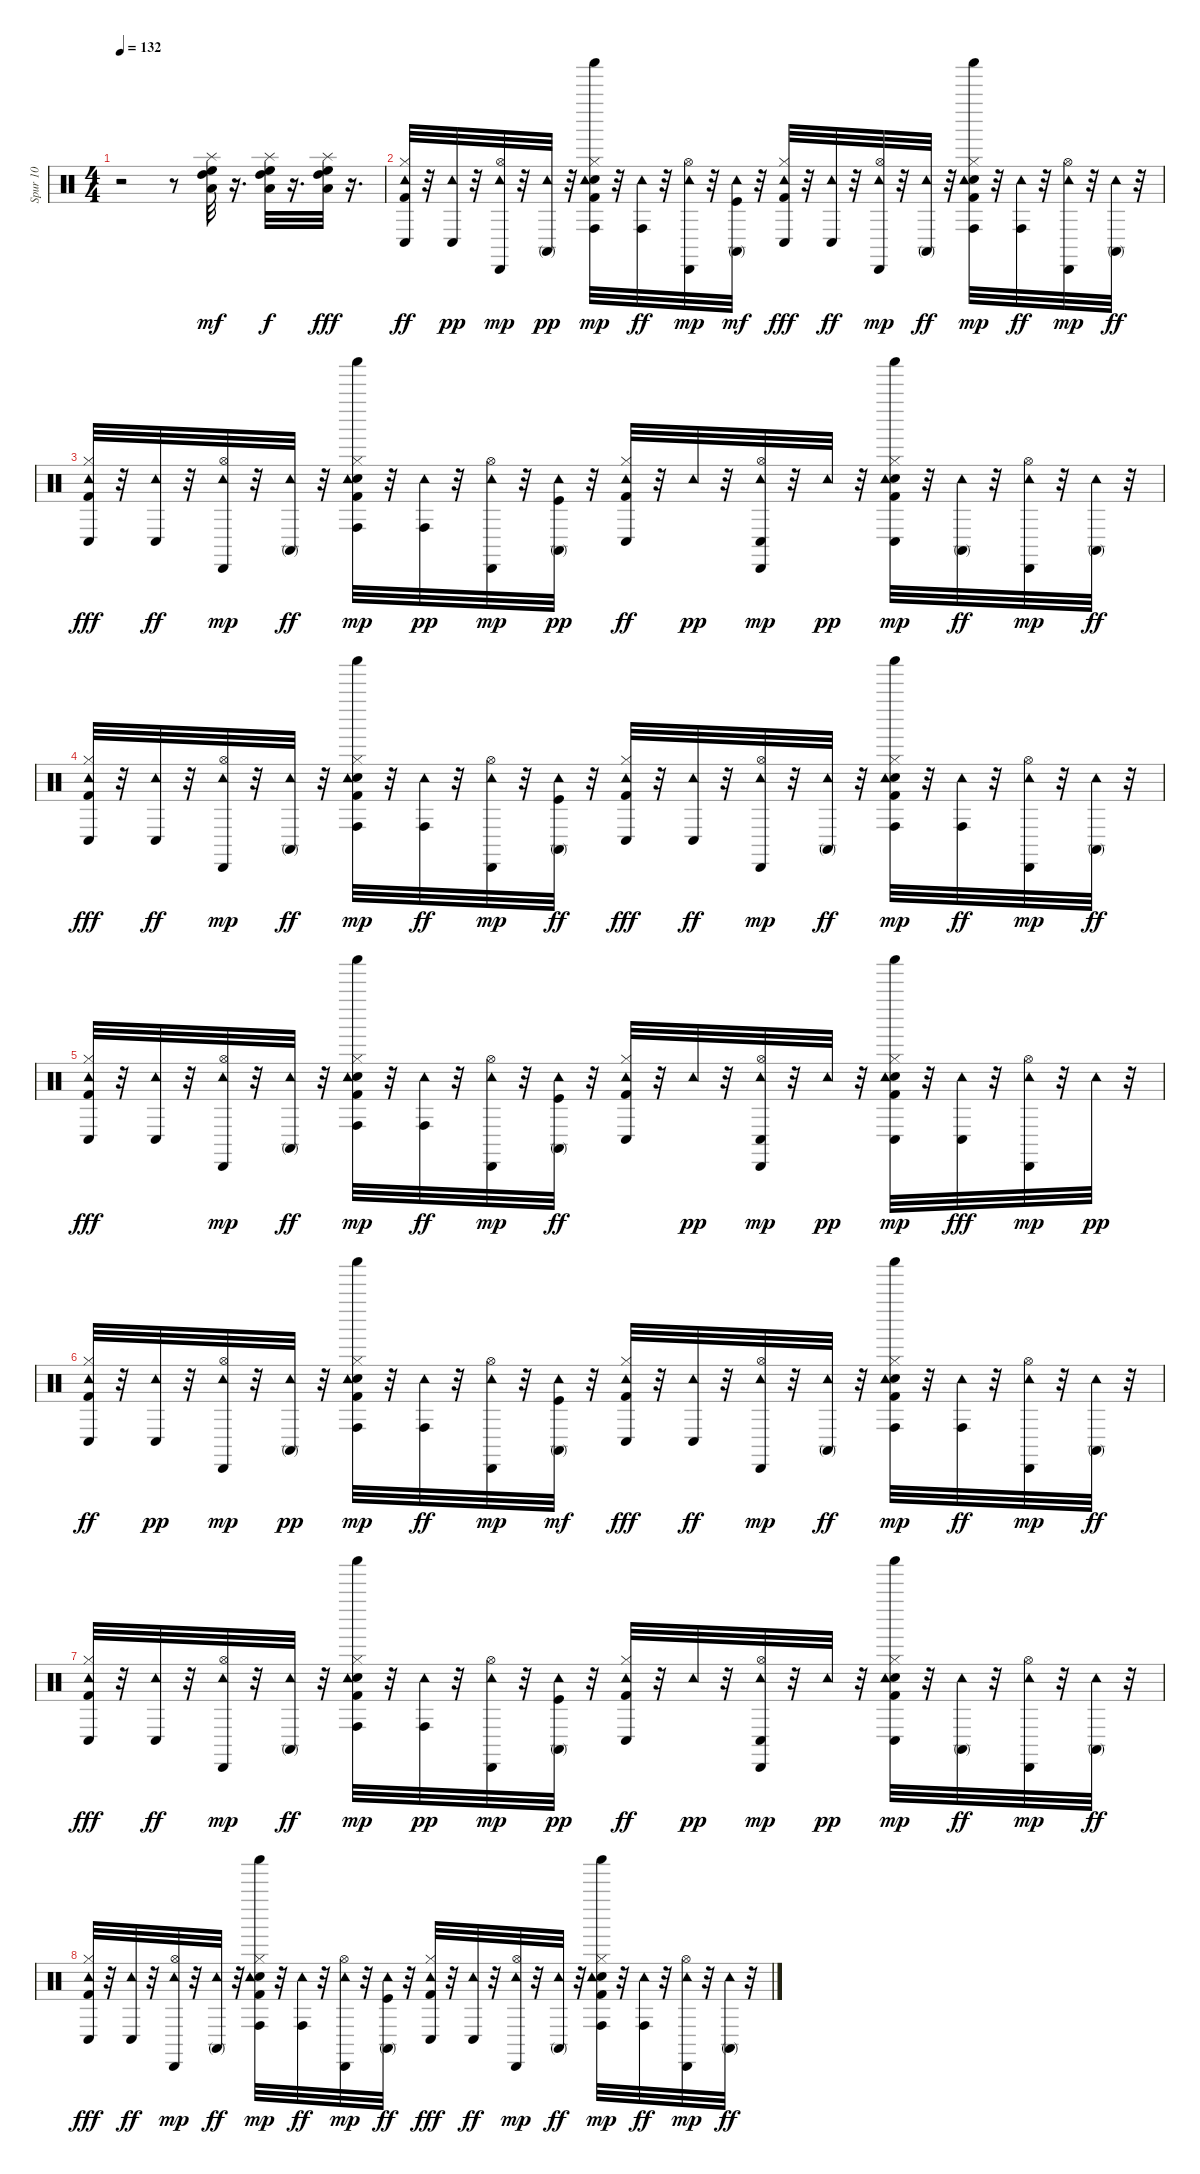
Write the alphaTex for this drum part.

\track ("Spur 10" "Spur 10") {instrument percussion}
\staff {score}
\articulation defaults
\ts (4 4)
\tempo 132
\clef neutral
\ks c
r.2{dy mf} r.8 ("Splash (hit)" "High Floor Tom (hit)" "High Tom (hit)" "Low Tom (hit)").32 r.16{d} ("High Tom (hit)" "High Floor Tom (hit)" "Splash (hit)" "Low Tom (hit)").32{dy f} r.16{d} ("Low Tom (hit)" "High Tom (hit)" "High Floor Tom (hit)" "Splash (hit)").32{dy fff} r.16{d} |
("Kick (hit) 2" "Hi-Hat (closed)" "Tambourine (hit)" "Conga low (hit)").32{dy ff} r.32 ("Tambourine (hit)" "Conga low (hit)").32{dy pp} r.32 ("Hi-Hat (open)" "Tambourine (hit)" "Cabasa (hit)").32{dy mp} r.32 ("Tambourine (hit)" "Conga high (mute)").32{dy pp} r.32 ("Snare (hit) 2" "Kick (hit) 2" "Hi-Hat (closed)" "Tambourine (hit)" "Conga high (hit)" "Shaker (hit)").32{dy mp} r.32 ("Tambourine (hit)" "Conga high (hit)").32{dy ff} r.32 ("Hi-Hat (open)" "Tambourine (hit)" "Cabasa (hit)").32{dy mp} r.32 ("Kick (hit)" "Tambourine (hit)" "Conga high (mute)").32{dy mf} r.32 ("Kick (hit) 2" "Hi-Hat (closed)" "Tambourine (hit)" "Conga low (hit)").32{dy fff} r.32 ("Tambourine (hit)" "Conga low (hit)").32{dy ff} r.32 ("Hi-Hat (open)" "Tambourine (hit)" "Cabasa (hit)").32{dy mp} r.32 ("Tambourine (hit)" "Conga high (mute)").32{dy ff} r.32 ("Snare (hit) 2" "Kick (hit) 2" "Hi-Hat (closed)" "Tambourine (hit)" "Conga high (hit)" "Shaker (hit)").32{dy mp} r.32 ("Tambourine (hit)" "Conga high (hit)").32{dy ff} r.32 ("Hi-Hat (open)" "Tambourine (hit)" "Cabasa (hit)").32{dy mp} r.32 ("Tambourine (hit)" "Conga high (mute)").32{dy ff} r.32 |
("Kick (hit) 2" "Hi-Hat (closed)" "Tambourine (hit)" "Conga low (hit)").32{dy fff} r.32 ("Tambourine (hit)" "Conga low (hit)").32{dy ff} r.32 ("Hi-Hat (open)" "Tambourine (hit)" "Cabasa (hit)").32{dy mp} r.32 ("Tambourine (hit)" "Conga high (mute)").32{dy ff} r.32 ("Snare (hit) 2" "Kick (hit) 2" "Hi-Hat (closed)" "Tambourine (hit)" "Conga high (hit)" "Shaker (hit)").32{dy mp} r.32 ("Tambourine (hit)" "Conga high (hit)").32{dy pp} r.32 ("Hi-Hat (open)" "Tambourine (hit)" "Cabasa (hit)").32{dy mp} r.32 ("Kick (hit)" "Tambourine (hit)" "Conga high (mute)").32{dy pp} r.32 ("Kick (hit) 2" "Hi-Hat (closed)" "Tambourine (hit)" "Conga low (hit)").32{dy ff} r.32 "Tambourine (hit)".32{dy pp} r.32 ("Hi-Hat (open)" "Tambourine (hit)" "Conga low (hit)" "Cabasa (hit)").32{dy mp} r.32 "Tambourine (hit)".32{dy pp} r.32 ("Snare (hit) 2" "Kick (hit) 2" "Hi-Hat (closed)" "Tambourine (hit)" "Conga low (hit)" "Shaker (hit)").32{dy mp} r.32 ("Tambourine (hit)" "Conga high (mute)").32{dy ff} r.32 ("Hi-Hat (open)" "Tambourine (hit)" "Cabasa (hit)").32{dy mp} r.32 ("Tambourine (hit)" "Conga high (mute)").32{dy ff} r.32 |
("Kick (hit) 2" "Hi-Hat (closed)" "Tambourine (hit)" "Conga low (hit)").32{dy fff} r.32 ("Tambourine (hit)" "Conga low (hit)").32{dy ff} r.32 ("Hi-Hat (open)" "Tambourine (hit)" "Cabasa (hit)").32{dy mp} r.32 ("Tambourine (hit)" "Conga high (mute)").32{dy ff} r.32 ("Snare (hit) 2" "Kick (hit) 2" "Hi-Hat (closed)" "Tambourine (hit)" "Conga high (hit)" "Shaker (hit)").32{dy mp} r.32 ("Tambourine (hit)" "Conga high (hit)").32{dy ff} r.32 ("Hi-Hat (open)" "Tambourine (hit)" "Cabasa (hit)").32{dy mp} r.32 ("Kick (hit)" "Tambourine (hit)" "Conga high (mute)").32{dy ff} r.32 ("Kick (hit) 2" "Hi-Hat (closed)" "Tambourine (hit)" "Conga low (hit)").32{dy fff} r.32 ("Tambourine (hit)" "Conga low (hit)").32{dy ff} r.32 ("Hi-Hat (open)" "Tambourine (hit)" "Cabasa (hit)").32{dy mp} r.32 ("Tambourine (hit)" "Conga high (mute)").32{dy ff} r.32 ("Snare (hit) 2" "Kick (hit) 2" "Hi-Hat (closed)" "Tambourine (hit)" "Conga high (hit)" "Shaker (hit)").32{dy mp} r.32 ("Tambourine (hit)" "Conga high (hit)").32{dy ff} r.32 ("Hi-Hat (open)" "Tambourine (hit)" "Cabasa (hit)").32{dy mp} r.32 ("Tambourine (hit)" "Conga high (mute)").32{dy ff} r.32 |
("Kick (hit) 2" "Hi-Hat (closed)" "Tambourine (hit)" "Conga low (hit)").32{dy fff} r.32 ("Tambourine (hit)" "Conga low (hit)").32 r.32 ("Hi-Hat (open)" "Tambourine (hit)" "Cabasa (hit)").32{dy mp} r.32 ("Tambourine (hit)" "Conga high (mute)").32{dy ff} r.32 ("Snare (hit) 2" "Kick (hit) 2" "Hi-Hat (closed)" "Tambourine (hit)" "Conga high (hit)" "Shaker (hit)").32{dy mp} r.32 ("Tambourine (hit)" "Conga high (hit)").32{dy ff} r.32 ("Hi-Hat (open)" "Tambourine (hit)" "Cabasa (hit)").32{dy mp} r.32 ("Kick (hit)" "Tambourine (hit)" "Conga high (mute)").32{dy ff} r.32 ("Kick (hit) 2" "Hi-Hat (closed)" "Tambourine (hit)" "Conga low (hit)").32 r.32 "Tambourine (hit)".32{dy pp} r.32 ("Hi-Hat (open)" "Tambourine (hit)" "Conga low (hit)" "Cabasa (hit)").32{dy mp} r.32 "Tambourine (hit)".32{dy pp} r.32 ("Snare (hit) 2" "Kick (hit) 2" "Hi-Hat (closed)" "Tambourine (hit)" "Conga low (hit)" "Shaker (hit)").32{dy mp} r.32 ("Tambourine (hit)" "Conga low (hit)").32{dy fff} r.32 ("Hi-Hat (open)" "Tambourine (hit)" "Cabasa (hit)").32{dy mp} r.32 "Tambourine (hit)".32{dy pp} r.32 |
("Kick (hit) 2" "Hi-Hat (closed)" "Tambourine (hit)" "Conga low (hit)").32{dy ff} r.32 ("Tambourine (hit)" "Conga low (hit)").32{dy pp} r.32 ("Hi-Hat (open)" "Tambourine (hit)" "Cabasa (hit)").32{dy mp} r.32 ("Tambourine (hit)" "Conga high (mute)").32{dy pp} r.32 ("Snare (hit) 2" "Kick (hit) 2" "Hi-Hat (closed)" "Tambourine (hit)" "Conga high (hit)" "Shaker (hit)").32{dy mp} r.32 ("Tambourine (hit)" "Conga high (hit)").32{dy ff} r.32 ("Hi-Hat (open)" "Tambourine (hit)" "Cabasa (hit)").32{dy mp} r.32 ("Kick (hit)" "Tambourine (hit)" "Conga high (mute)").32{dy mf} r.32 ("Kick (hit) 2" "Hi-Hat (closed)" "Tambourine (hit)" "Conga low (hit)").32{dy fff} r.32 ("Tambourine (hit)" "Conga low (hit)").32{dy ff} r.32 ("Hi-Hat (open)" "Tambourine (hit)" "Cabasa (hit)").32{dy mp} r.32 ("Tambourine (hit)" "Conga high (mute)").32{dy ff} r.32 ("Snare (hit) 2" "Kick (hit) 2" "Hi-Hat (closed)" "Tambourine (hit)" "Conga high (hit)" "Shaker (hit)").32{dy mp} r.32 ("Tambourine (hit)" "Conga high (hit)").32{dy ff} r.32 ("Hi-Hat (open)" "Tambourine (hit)" "Cabasa (hit)").32{dy mp} r.32 ("Tambourine (hit)" "Conga high (mute)").32{dy ff} r.32 |
("Kick (hit) 2" "Hi-Hat (closed)" "Tambourine (hit)" "Conga low (hit)").32{dy fff} r.32 ("Tambourine (hit)" "Conga low (hit)").32{dy ff} r.32 ("Hi-Hat (open)" "Tambourine (hit)" "Cabasa (hit)").32{dy mp} r.32 ("Tambourine (hit)" "Conga high (mute)").32{dy ff} r.32 ("Snare (hit) 2" "Kick (hit) 2" "Hi-Hat (closed)" "Tambourine (hit)" "Conga high (hit)" "Shaker (hit)").32{dy mp} r.32 ("Tambourine (hit)" "Conga high (hit)").32{dy pp} r.32 ("Hi-Hat (open)" "Tambourine (hit)" "Cabasa (hit)").32{dy mp} r.32 ("Kick (hit)" "Tambourine (hit)" "Conga high (mute)").32{dy pp} r.32 ("Kick (hit) 2" "Hi-Hat (closed)" "Tambourine (hit)" "Conga low (hit)").32{dy ff} r.32 "Tambourine (hit)".32{dy pp} r.32 ("Hi-Hat (open)" "Tambourine (hit)" "Conga low (hit)" "Cabasa (hit)").32{dy mp} r.32 "Tambourine (hit)".32{dy pp} r.32 ("Snare (hit) 2" "Kick (hit) 2" "Hi-Hat (closed)" "Tambourine (hit)" "Conga low (hit)" "Shaker (hit)").32{dy mp} r.32 ("Tambourine (hit)" "Conga high (mute)").32{dy ff} r.32 ("Hi-Hat (open)" "Tambourine (hit)" "Cabasa (hit)").32{dy mp} r.32 ("Tambourine (hit)" "Conga high (mute)").32{dy ff} r.32 |
("Kick (hit) 2" "Hi-Hat (closed)" "Tambourine (hit)" "Conga low (hit)").32{dy fff} r.32 ("Tambourine (hit)" "Conga low (hit)").32{dy ff} r.32 ("Hi-Hat (open)" "Tambourine (hit)" "Cabasa (hit)").32{dy mp} r.32 ("Tambourine (hit)" "Conga high (mute)").32{dy ff} r.32 ("Snare (hit) 2" "Kick (hit) 2" "Hi-Hat (closed)" "Tambourine (hit)" "Conga high (hit)" "Shaker (hit)").32{dy mp} r.32 ("Tambourine (hit)" "Conga high (hit)").32{dy ff} r.32 ("Hi-Hat (open)" "Tambourine (hit)" "Cabasa (hit)").32{dy mp} r.32 ("Kick (hit)" "Tambourine (hit)" "Conga high (mute)").32{dy ff} r.32 ("Kick (hit) 2" "Hi-Hat (closed)" "Tambourine (hit)" "Conga low (hit)").32{dy fff} r.32 ("Tambourine (hit)" "Conga low (hit)").32{dy ff} r.32 ("Hi-Hat (open)" "Tambourine (hit)" "Cabasa (hit)").32{dy mp} r.32 ("Tambourine (hit)" "Conga high (mute)").32{dy ff} r.32 ("Snare (hit) 2" "Kick (hit) 2" "Hi-Hat (closed)" "Tambourine (hit)" "Conga high (hit)" "Shaker (hit)").32{dy mp} r.32 ("Tambourine (hit)" "Conga high (hit)").32{dy ff} r.32 ("Hi-Hat (open)" "Tambourine (hit)" "Cabasa (hit)").32{dy mp} r.32 ("Tambourine (hit)" "Conga high (mute)").32{dy ff} r.32
